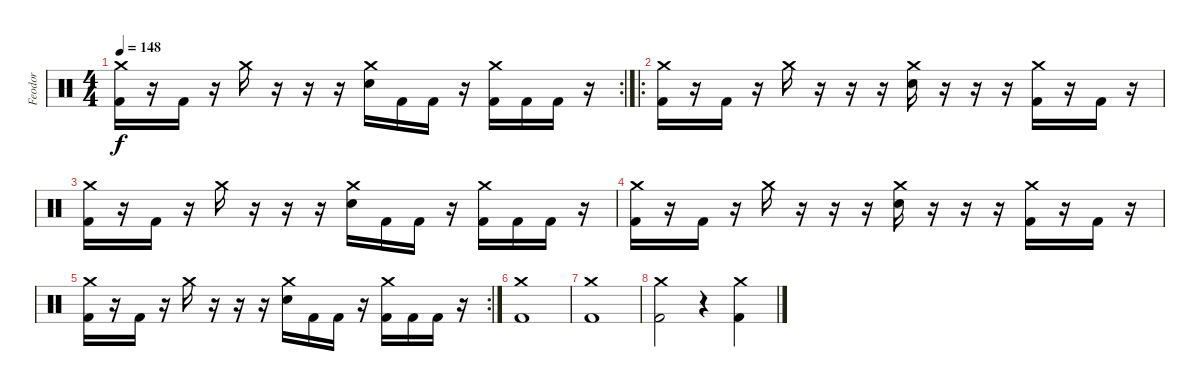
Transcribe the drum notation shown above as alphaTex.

\track ("Feodor" "Feodor") {instrument percussion}
\staff {score}
\articulation defaults
\rc 2
\ts (4 4)
\tempo 148
\clef neutral
\ks c
("Crash medium (hit)" "Kick (hit) 2").16{dy f} r.16 "Kick (hit) 2".16 r.16 "Crash medium (hit)".16 r.16 r.16 r.16 ("Electric Snare (hit)" "Crash medium (hit)").16 "Kick (hit) 2".16 "Kick (hit) 2".16 r.16 ("Kick (hit) 2" "Crash medium (hit)").16 "Kick (hit) 2".16 "Kick (hit) 2".16 r.16 |
\ro
("Crash medium (hit)" "Kick (hit) 2").16 r.16 "Kick (hit) 2".16 r.16 "Crash medium (hit)".16 r.16 r.16 r.16 ("Electric Snare (hit)" "Crash medium (hit)").16 r.16 r.16 r.16 ("Kick (hit) 2" "Crash medium (hit)").16 r.16 "Kick (hit) 2".16 r.16 |
("Crash medium (hit)" "Kick (hit) 2").16 r.16 "Kick (hit) 2".16 r.16 "Crash medium (hit)".16 r.16 r.16 r.16 ("Electric Snare (hit)" "Crash medium (hit)").16 "Kick (hit) 2".16 "Kick (hit) 2".16 r.16 ("Kick (hit) 2" "Crash medium (hit)").16 "Kick (hit) 2".16 "Kick (hit) 2".16 r.16 |
("Crash medium (hit)" "Kick (hit) 2").16 r.16 "Kick (hit) 2".16 r.16 "Crash medium (hit)".16 r.16 r.16 r.16 ("Electric Snare (hit)" "Crash medium (hit)").16 r.16 r.16 r.16 ("Kick (hit) 2" "Crash medium (hit)").16 r.16 "Kick (hit) 2".16 r.16 |
\rc 2
("Crash medium (hit)" "Kick (hit) 2").16 r.16 "Kick (hit) 2".16 r.16 "Crash medium (hit)".16 r.16 r.16 r.16 ("Electric Snare (hit)" "Crash medium (hit)").16 "Kick (hit) 2".16 "Kick (hit) 2".16 r.16 ("Kick (hit) 2" "Crash medium (hit)").16 "Kick (hit) 2".16 "Kick (hit) 2".16 r.16 |
("Kick (hit) 2" "Crash medium (hit)").1 |
("Kick (hit) 2" "Crash medium (hit)").1 |
("Kick (hit) 2" "Crash medium (hit)").2 r.4 ("Kick (hit) 2" "Crash medium (hit)").4
